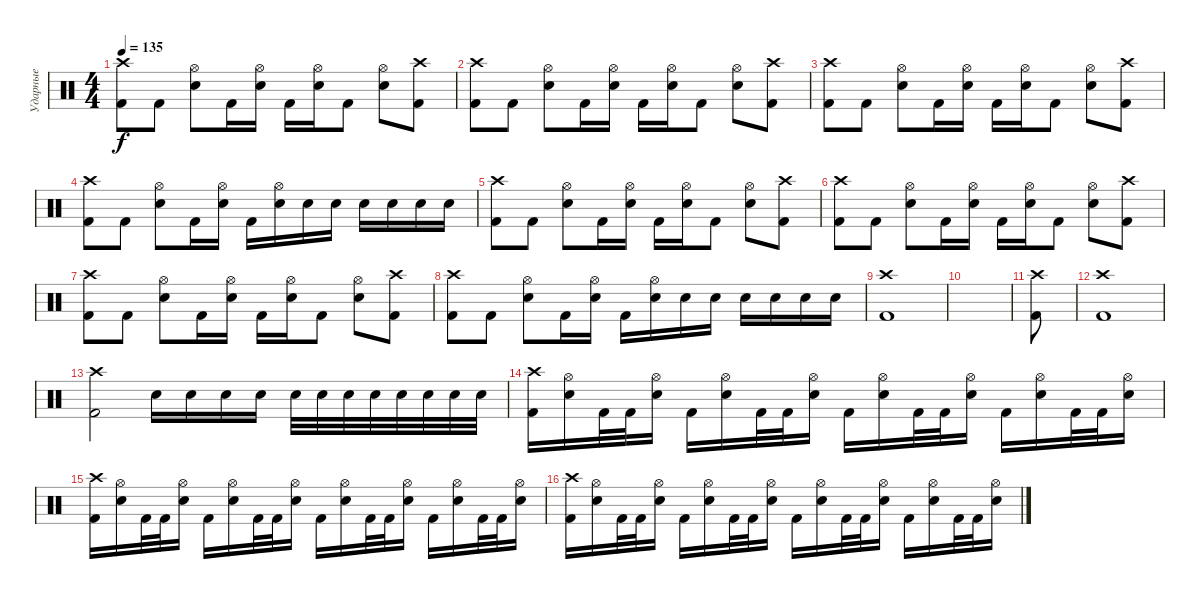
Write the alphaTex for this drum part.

\track ("Ударные" "Ударные") {instrument percussion}
\staff {score}
\articulation defaults
\ts (4 4)
\tempo 135
\clef neutral
\ks c
("Kick (hit) 2" "Crash high (hit)").8{dy f} "Kick (hit) 2".8 ("Electric Snare (hit)" "Hi-Hat (open)").8 "Kick (hit) 2".16 ("Electric Snare (hit)" "Hi-Hat (open)").16 "Kick (hit) 2".16 ("Electric Snare (hit)" "Hi-Hat (open)").16 "Kick (hit) 2".8 ("Electric Snare (hit)" "Hi-Hat (open)").8 ("Kick (hit) 2" "Crash high (hit)").8 |
("Kick (hit) 2" "Crash high (hit)").8 "Kick (hit) 2".8 ("Electric Snare (hit)" "Hi-Hat (open)").8 "Kick (hit) 2".16 ("Electric Snare (hit)" "Hi-Hat (open)").16 "Kick (hit) 2".16 ("Electric Snare (hit)" "Hi-Hat (open)").16 "Kick (hit) 2".8 ("Electric Snare (hit)" "Hi-Hat (open)").8 ("Kick (hit) 2" "Crash high (hit)").8 |
("Kick (hit) 2" "Crash high (hit)").8 "Kick (hit) 2".8 ("Electric Snare (hit)" "Hi-Hat (open)").8 "Kick (hit) 2".16 ("Electric Snare (hit)" "Hi-Hat (open)").16 "Kick (hit) 2".16 ("Electric Snare (hit)" "Hi-Hat (open)").16 "Kick (hit) 2".8 ("Electric Snare (hit)" "Hi-Hat (open)").8 ("Kick (hit) 2" "Crash high (hit)").8 |
("Kick (hit) 2" "Crash high (hit)").8 "Kick (hit) 2".8 ("Electric Snare (hit)" "Hi-Hat (open)").8 "Kick (hit) 2".16 ("Electric Snare (hit)" "Hi-Hat (open)").16 "Kick (hit) 2".16 ("Electric Snare (hit)" "Hi-Hat (open)").16 "Electric Snare (hit)".16 "Electric Snare (hit)".16 "Electric Snare (hit)".16 "Electric Snare (hit)".16 "Electric Snare (hit)".16 "Electric Snare (hit)".16 |
("Kick (hit) 2" "Crash high (hit)").8 "Kick (hit) 2".8 ("Electric Snare (hit)" "Hi-Hat (open)").8 "Kick (hit) 2".16 ("Electric Snare (hit)" "Hi-Hat (open)").16 "Kick (hit) 2".16 ("Electric Snare (hit)" "Hi-Hat (open)").16 "Kick (hit) 2".8 ("Electric Snare (hit)" "Hi-Hat (open)").8 ("Kick (hit) 2" "Crash high (hit)").8 |
("Kick (hit) 2" "Crash high (hit)").8 "Kick (hit) 2".8 ("Electric Snare (hit)" "Hi-Hat (open)").8 "Kick (hit) 2".16 ("Electric Snare (hit)" "Hi-Hat (open)").16 "Kick (hit) 2".16 ("Electric Snare (hit)" "Hi-Hat (open)").16 "Kick (hit) 2".8 ("Electric Snare (hit)" "Hi-Hat (open)").8 ("Kick (hit) 2" "Crash high (hit)").8 |
("Kick (hit) 2" "Crash high (hit)").8 "Kick (hit) 2".8 ("Electric Snare (hit)" "Hi-Hat (open)").8 "Kick (hit) 2".16 ("Electric Snare (hit)" "Hi-Hat (open)").16 "Kick (hit) 2".16 ("Electric Snare (hit)" "Hi-Hat (open)").16 "Kick (hit) 2".8 ("Electric Snare (hit)" "Hi-Hat (open)").8 ("Kick (hit) 2" "Crash high (hit)").8 |
("Kick (hit) 2" "Crash high (hit)").8 "Kick (hit) 2".8 ("Electric Snare (hit)" "Hi-Hat (open)").8 "Kick (hit) 2".16 ("Electric Snare (hit)" "Hi-Hat (open)").16 "Kick (hit) 2".16 ("Electric Snare (hit)" "Hi-Hat (open)").16 "Electric Snare (hit)".16 "Electric Snare (hit)".16 "Electric Snare (hit)".16 "Electric Snare (hit)".16 "Electric Snare (hit)".16 "Electric Snare (hit)".16 |
("Crash high (hit)" "Kick (hit) 2").1 |
|
("Kick (hit) 2" "Crash high (hit)").8 |
("Kick (hit) 2" "Crash high (hit)").1 |
("Kick (hit) 2" "Crash high (hit)").2 "Electric Snare (hit)".16 "Electric Snare (hit)".16 "Electric Snare (hit)".16 "Electric Snare (hit)".16 "Electric Snare (hit)".32 "Electric Snare (hit)".32 "Electric Snare (hit)".32 "Electric Snare (hit)".32 "Electric Snare (hit)".32 "Electric Snare (hit)".32 "Electric Snare (hit)".32 "Electric Snare (hit)".32 |
("Kick (hit) 2" "Crash high (hit)").16 ("Electric Snare (hit)" "Hi-Hat (open)").16 "Kick (hit) 2".32 "Kick (hit) 2".32 ("Electric Snare (hit)" "Hi-Hat (open)").16 "Kick (hit) 2".16 ("Electric Snare (hit)" "Hi-Hat (open)").16 "Kick (hit) 2".32 "Kick (hit) 2".32 ("Electric Snare (hit)" "Hi-Hat (open)").16 "Kick (hit) 2".16 ("Electric Snare (hit)" "Hi-Hat (open)").16 "Kick (hit) 2".32 "Kick (hit) 2".32 ("Electric Snare (hit)" "Hi-Hat (open)").16 "Kick (hit) 2".16 ("Electric Snare (hit)" "Hi-Hat (open)").16 "Kick (hit) 2".32 "Kick (hit) 2".32 ("Electric Snare (hit)" "Hi-Hat (open)").16 |
("Kick (hit) 2" "Crash high (hit)").16 ("Electric Snare (hit)" "Hi-Hat (open)").16 "Kick (hit) 2".32 "Kick (hit) 2".32 ("Electric Snare (hit)" "Hi-Hat (open)").16 "Kick (hit) 2".16 ("Electric Snare (hit)" "Hi-Hat (open)").16 "Kick (hit) 2".32 "Kick (hit) 2".32 ("Electric Snare (hit)" "Hi-Hat (open)").16 "Kick (hit) 2".16 ("Electric Snare (hit)" "Hi-Hat (open)").16 "Kick (hit) 2".32 "Kick (hit) 2".32 ("Electric Snare (hit)" "Hi-Hat (open)").16 "Kick (hit) 2".16 ("Electric Snare (hit)" "Hi-Hat (open)").16 "Kick (hit) 2".32 "Kick (hit) 2".32 ("Electric Snare (hit)" "Hi-Hat (open)").16 |
("Kick (hit) 2" "Crash high (hit)").16 ("Electric Snare (hit)" "Hi-Hat (open)").16 "Kick (hit) 2".32 "Kick (hit) 2".32 ("Electric Snare (hit)" "Hi-Hat (open)").16 "Kick (hit) 2".16 ("Electric Snare (hit)" "Hi-Hat (open)").16 "Kick (hit) 2".32 "Kick (hit) 2".32 ("Electric Snare (hit)" "Hi-Hat (open)").16 "Kick (hit) 2".16 ("Electric Snare (hit)" "Hi-Hat (open)").16 "Kick (hit) 2".32 "Kick (hit) 2".32 ("Electric Snare (hit)" "Hi-Hat (open)").16 "Kick (hit) 2".16 ("Electric Snare (hit)" "Hi-Hat (open)").16 "Kick (hit) 2".32 "Kick (hit) 2".32 ("Electric Snare (hit)" "Hi-Hat (open)").16
